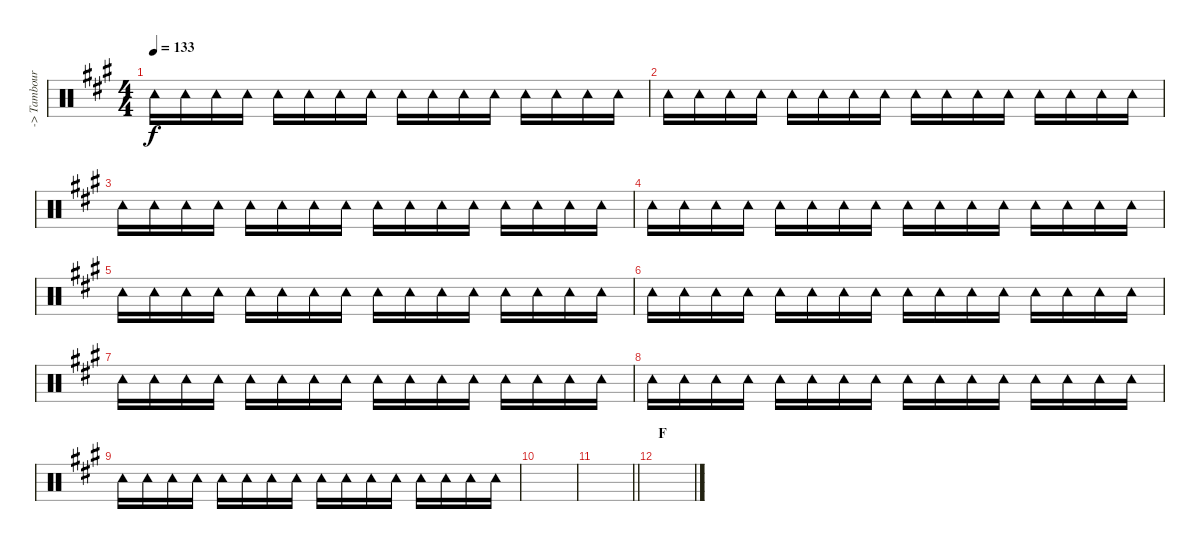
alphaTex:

\track ("-> Tambourine" "-> Tambour") {instrument percussion}
\staff {score}
\articulation defaults
\ts (4 4)
\tempo 133
\clef neutral
\ks a "Tambourine (hit)".16{dy f} "Tambourine (hit)".16 "Tambourine (hit)".16 "Tambourine (hit)".16 "Tambourine (hit)".16 "Tambourine (hit)".16 "Tambourine (hit)".16 "Tambourine (hit)".16 "Tambourine (hit)".16 "Tambourine (hit)".16 "Tambourine (hit)".16 "Tambourine (hit)".16 "Tambourine (hit)".16 "Tambourine (hit)".16 "Tambourine (hit)".16 "Tambourine (hit)".16
|
"Tambourine (hit)".16 "Tambourine (hit)".16 "Tambourine (hit)".16 "Tambourine (hit)".16 "Tambourine (hit)".16 "Tambourine (hit)".16 "Tambourine (hit)".16 "Tambourine (hit)".16 "Tambourine (hit)".16 "Tambourine (hit)".16 "Tambourine (hit)".16 "Tambourine (hit)".16 "Tambourine (hit)".16 "Tambourine (hit)".16 "Tambourine (hit)".16 "Tambourine (hit)".16 |
"Tambourine (hit)".16 "Tambourine (hit)".16 "Tambourine (hit)".16 "Tambourine (hit)".16 "Tambourine (hit)".16 "Tambourine (hit)".16 "Tambourine (hit)".16 "Tambourine (hit)".16 "Tambourine (hit)".16 "Tambourine (hit)".16 "Tambourine (hit)".16 "Tambourine (hit)".16 "Tambourine (hit)".16 "Tambourine (hit)".16 "Tambourine (hit)".16 "Tambourine (hit)".16 |
"Tambourine (hit)".16 "Tambourine (hit)".16 "Tambourine (hit)".16 "Tambourine (hit)".16 "Tambourine (hit)".16 "Tambourine (hit)".16 "Tambourine (hit)".16 "Tambourine (hit)".16 "Tambourine (hit)".16 "Tambourine (hit)".16 "Tambourine (hit)".16 "Tambourine (hit)".16 "Tambourine (hit)".16 "Tambourine (hit)".16 "Tambourine (hit)".16 "Tambourine (hit)".16 |
"Tambourine (hit)".16 "Tambourine (hit)".16 "Tambourine (hit)".16 "Tambourine (hit)".16 "Tambourine (hit)".16 "Tambourine (hit)".16 "Tambourine (hit)".16 "Tambourine (hit)".16 "Tambourine (hit)".16 "Tambourine (hit)".16 "Tambourine (hit)".16 "Tambourine (hit)".16 "Tambourine (hit)".16 "Tambourine (hit)".16 "Tambourine (hit)".16 "Tambourine (hit)".16 |
"Tambourine (hit)".16 "Tambourine (hit)".16 "Tambourine (hit)".16 "Tambourine (hit)".16 "Tambourine (hit)".16 "Tambourine (hit)".16 "Tambourine (hit)".16 "Tambourine (hit)".16 "Tambourine (hit)".16 "Tambourine (hit)".16 "Tambourine (hit)".16 "Tambourine (hit)".16 "Tambourine (hit)".16 "Tambourine (hit)".16 "Tambourine (hit)".16 "Tambourine (hit)".16 |
"Tambourine (hit)".16 "Tambourine (hit)".16 "Tambourine (hit)".16 "Tambourine (hit)".16 "Tambourine (hit)".16 "Tambourine (hit)".16 "Tambourine (hit)".16 "Tambourine (hit)".16 "Tambourine (hit)".16 "Tambourine (hit)".16 "Tambourine (hit)".16 "Tambourine (hit)".16 "Tambourine (hit)".16 "Tambourine (hit)".16 "Tambourine (hit)".16 "Tambourine (hit)".16 |
"Tambourine (hit)".16 "Tambourine (hit)".16 "Tambourine (hit)".16 "Tambourine (hit)".16 "Tambourine (hit)".16 "Tambourine (hit)".16 "Tambourine (hit)".16 "Tambourine (hit)".16 "Tambourine (hit)".16 "Tambourine (hit)".16 "Tambourine (hit)".16 "Tambourine (hit)".16 "Tambourine (hit)".16 "Tambourine (hit)".16 "Tambourine (hit)".16 "Tambourine (hit)".16 |
"Tambourine (hit)".16 "Tambourine (hit)".16 "Tambourine (hit)".16 "Tambourine (hit)".16 "Tambourine (hit)".16 "Tambourine (hit)".16 "Tambourine (hit)".16 "Tambourine (hit)".16 "Tambourine (hit)".16 "Tambourine (hit)".16 "Tambourine (hit)".16 "Tambourine (hit)".16 "Tambourine (hit)".16 "Tambourine (hit)".16 "Tambourine (hit)".16 "Tambourine (hit)".16 |
|
\barLineRight lightlight
|
\section ("" "F")
